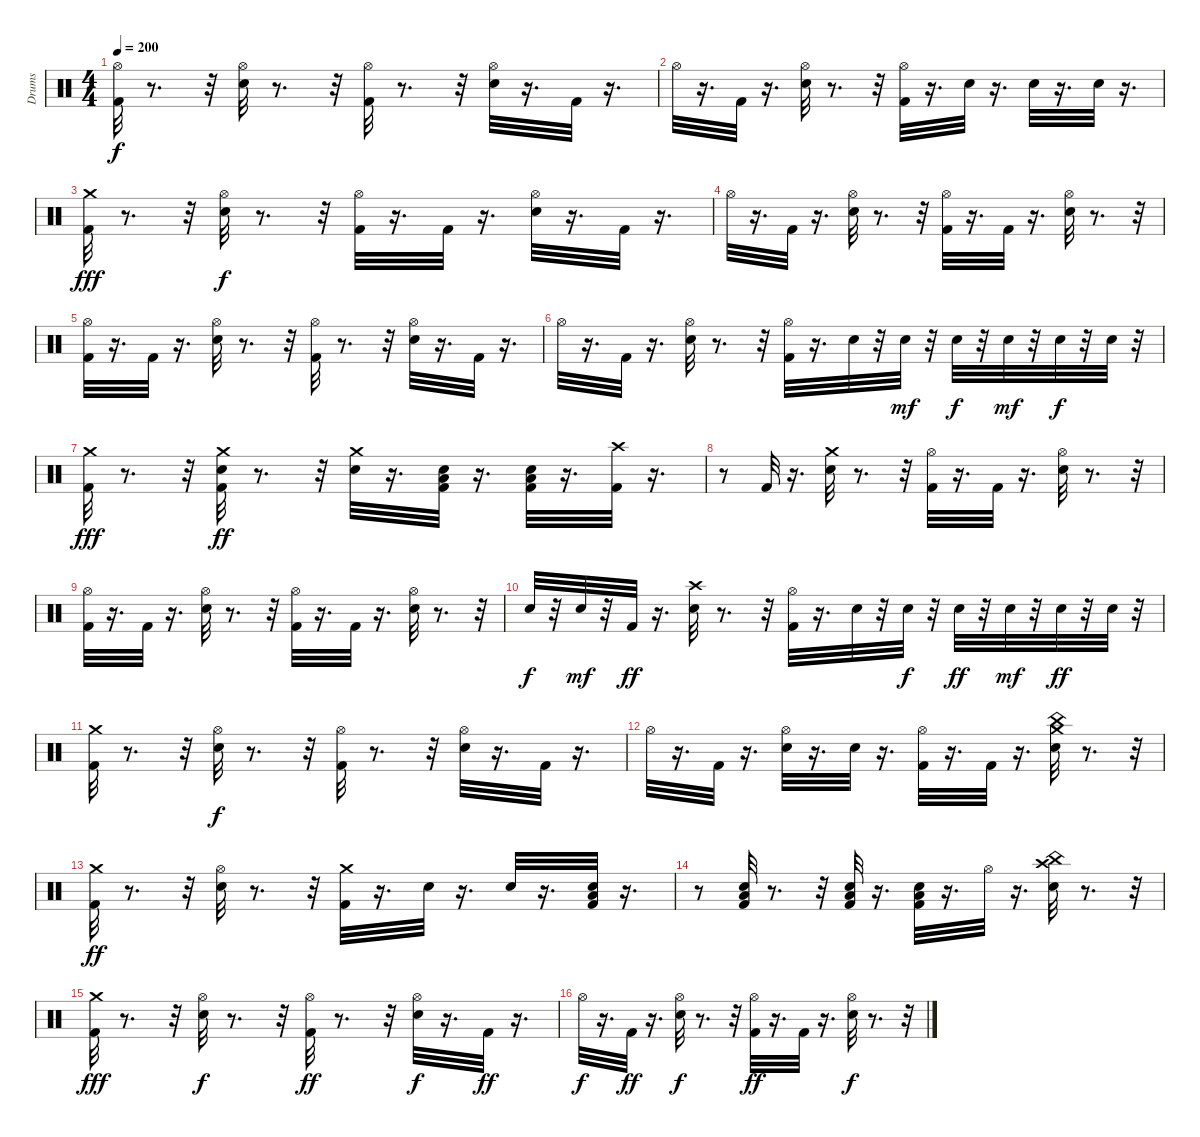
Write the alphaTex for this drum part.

\track ("Drums" "Drums") {instrument percussion}
\staff {score}
\articulation defaults
\ts (4 4)
\tempo 200
\clef neutral
\ks c
("Kick (hit) 2" "Hi-Hat (open)").32{dy f} r.8{d} r.32 ("Snare (hit) 2" "Hi-Hat (open)").32 r.8{d} r.32 ("Kick (hit) 2" "Hi-Hat (open)").32 r.8{d} r.32 ("Snare (hit) 2" "Hi-Hat (open)").32 r.16{d} "Kick (hit) 2".32 r.16{d} |
"Hi-Hat (open)".32 r.16{d} "Kick (hit) 2".32 r.16{d} ("Snare (hit) 2" "Hi-Hat (open)").32 r.8{d} r.32 ("Kick (hit) 2" "Hi-Hat (open)").32 r.16{d} "Snare (hit) 2".32 r.16{d} "Snare (hit) 2".32 r.16{d} "Snare (hit) 2".32 r.16{d} |
("Crash medium (hit)" "Kick (hit) 2").32{dy fff} r.8{d} r.32 ("Hi-Hat (open)" "Snare (hit) 2").32{dy f} r.8{d} r.32 ("Hi-Hat (open)" "Kick (hit) 2").32 r.16{d} "Kick (hit) 2".32 r.16{d} ("Hi-Hat (open)" "Snare (hit) 2").32 r.16{d} "Kick (hit) 2".32 r.16{d} |
"Hi-Hat (open)".32 r.16{d} "Kick (hit) 2".32 r.16{d} ("Hi-Hat (open)" "Snare (hit) 2").32 r.8{d} r.32 ("Hi-Hat (open)" "Kick (hit) 2").32 r.16{d} "Kick (hit) 2".32 r.16{d} ("Hi-Hat (open)" "Snare (hit) 2").32 r.8{d} r.32 |
("Kick (hit) 2" "Hi-Hat (open)").32 r.16{d} "Kick (hit) 2".32 r.16{d} ("Snare (hit) 2" "Hi-Hat (open)").32 r.8{d} r.32 ("Kick (hit) 2" "Hi-Hat (open)").32 r.8{d} r.32 ("Snare (hit) 2" "Hi-Hat (open)").32 r.16{d} "Kick (hit) 2".32 r.16{d} |
"Hi-Hat (open)".32 r.16{d} "Kick (hit) 2".32 r.16{d} ("Snare (hit) 2" "Hi-Hat (open)").32 r.8{d} r.32 ("Hi-Hat (open)" "Kick (hit) 2").32 r.16{d} "Snare (hit) 2".32 r.32 "Snare (hit) 2".32{dy mf} r.32 "Snare (hit) 2".32{dy f} r.32 "Snare (hit) 2".32{dy mf} r.32 "Snare (hit) 2".32{dy f} r.32 "Snare (hit) 2".32 r.32 |
("Kick (hit) 2" "Crash medium (hit)").32{dy fff} r.8{d} r.32 ("Kick (hit) 2" "Crash medium (hit)" "Snare (hit) 2").32{dy ff} r.8{d} r.32 ("Crash medium (hit)" "Snare (hit) 2").32 r.16{d} ("Kick (hit) 2" "Low Floor Tom (hit)" "Snare (hit) 2").32 r.16{d} ("Kick (hit) 2" "Low Floor Tom (hit)" "Snare (hit) 2").32 r.16{d} ("Crash high (hit)" "Kick (hit) 2").32 r.16{d} |
r.8 "Kick (hit) 2".32 r.16{d} ("Snare (hit) 2" "Crash medium (hit)").32 r.8{d} r.32 ("Kick (hit) 2" "Hi-Hat (open)").32 r.16{d} "Kick (hit) 2".32 r.16{d} ("Snare (hit) 2" "Hi-Hat (open)").32 r.8{d} r.32 |
("Kick (hit) 2" "Hi-Hat (open)").32 r.16{d} "Kick (hit) 2".32 r.16{d} ("Snare (hit) 2" "Hi-Hat (open)").32 r.8{d} r.32 ("Hi-Hat (open)" "Kick (hit) 2").32 r.16{d} "Kick (hit) 2".32 r.16{d} ("Snare (hit) 2" "Hi-Hat (open)").32 r.8{d} r.32 |
"Snare (hit) 2".32{dy f} r.32 "Snare (hit) 2".32{dy mf} r.32 "Kick (hit) 2".32{dy ff} r.16{d} ("Crash high (hit)" "Snare (hit) 2").32 r.8{d} r.32 ("Hi-Hat (open)" "Kick (hit) 2").32 r.16{d} "Snare (hit) 2".32 r.32 "Snare (hit) 2".32{dy f} r.32 "Snare (hit) 2".32{dy ff} r.32 "Snare (hit) 2".32{dy mf} r.32 "Snare (hit) 2".32{dy ff} r.32 "Snare (hit) 2".32 r.32 |
("Crash medium (hit)" "Kick (hit) 2").32 r.8{d} r.32 ("Hi-Hat (open)" "Snare (hit) 2").32{dy f} r.8{d} r.32 ("Hi-Hat (open)" "Kick (hit) 2").32 r.8{d} r.32 ("Hi-Hat (open)" "Snare (hit) 2").32 r.16{d} "Kick (hit) 2".32 r.16{d} |
"Hi-Hat (open)".32 r.16{d} "Kick (hit) 2".32 r.16{d} ("Hi-Hat (open)" "Snare (hit) 2").32 r.16{d} "Snare (hit) 2".32 r.16{d} ("Hi-Hat (open)" "Kick (hit) 2").32 r.16{d} "Kick (hit) 2".32 r.16{d} ("Crash medium (hit)" "China (hit)" "Snare (hit) 2").32 r.8{d} r.32 |
("Crash medium (hit)" "Kick (hit) 2").32{dy ff} r.8{d} r.32 ("Hi-Hat (open)" "Snare (hit) 2").32 r.8{d} r.32 ("Crash medium (hit)" "Kick (hit) 2").32 r.16{d} "Snare (hit) 2".32 r.16{d} "Snare (hit) 2".32 r.16{d} ("Low Floor Tom (hit)" "Kick (hit) 2" "Snare (hit) 2").32 r.16{d} |
r.8 ("Low Floor Tom (hit)" "Kick (hit) 2" "Snare (hit) 2").32 r.8{d} r.32 ("Low Floor Tom (hit)" "Kick (hit) 2" "Snare (hit) 2").32 r.16{d} ("Low Floor Tom (hit)" "Kick (hit) 2" "Snare (hit) 2").32 r.16{d} "Hi-Hat (open)".32 r.16{d} ("Crash high (hit)" "China (hit)" "Snare (hit) 2").32 r.8{d} r.32 |
("Crash medium (hit)" "Kick (hit) 2").32{dy fff} r.8{d} r.32 ("Hi-Hat (open)" "Snare (hit) 2").32{dy f} r.8{d} r.32 ("Hi-Hat (open)" "Kick (hit) 2").32{dy ff} r.8{d} r.32 ("Hi-Hat (open)" "Snare (hit) 2").32{dy f} r.16{d} "Kick (hit) 2".32{dy ff} r.16{d} |
"Hi-Hat (open)".32{dy f} r.16{d} "Kick (hit) 2".32{dy ff} r.16{d} ("Snare (hit) 2" "Hi-Hat (open)").32{dy f} r.8{d} r.32 ("Hi-Hat (open)" "Kick (hit) 2").32{dy ff} r.16{d} "Kick (hit) 2".32 r.16{d} ("Hi-Hat (open)" "Snare (hit) 2").32{dy f} r.8{d} r.32
